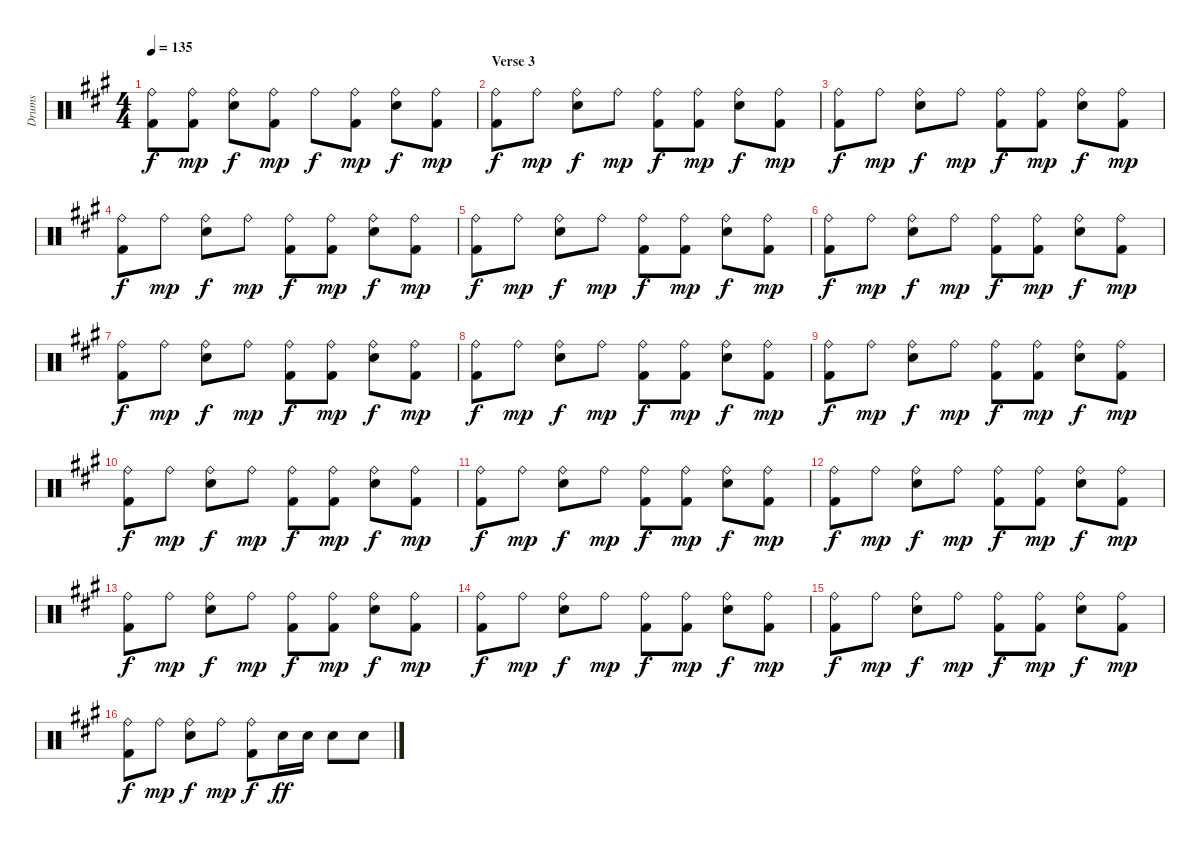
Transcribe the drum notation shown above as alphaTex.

\track ("Drums" "Drums") {instrument percussion}
\staff {score}
\articulation defaults
\ts (4 4)
\tempo 135
\clef neutral
\ks a
("Ride (bell)" "Kick (hit) 2").8{dy f} ("Ride (bell)" "Kick (hit) 2").8{dy mp} ("Ride (bell)" "Electric Snare (hit)").8{dy f} ("Ride (bell)" "Kick (hit) 2").8{dy mp} "Ride (bell)".8{dy f} ("Ride (bell)" "Kick (hit) 2").8{dy mp} ("Ride (bell)" "Electric Snare (hit)").8{dy f} ("Ride (bell)" "Kick (hit) 2").8{dy mp} |
\section ("" "Verse 3")
("Ride (bell)" "Kick (hit) 2").8{dy f} "Ride (bell)".8{dy mp} ("Ride (bell)" "Electric Snare (hit)").8{dy f} "Ride (bell)".8{dy mp} ("Ride (bell)" "Kick (hit) 2").8{dy f} ("Ride (bell)" "Kick (hit) 2").8{dy mp} ("Ride (bell)" "Electric Snare (hit)").8{dy f} ("Ride (bell)" "Kick (hit) 2").8{dy mp} |
("Ride (bell)" "Kick (hit) 2").8{dy f} "Ride (bell)".8{dy mp} ("Ride (bell)" "Electric Snare (hit)").8{dy f} "Ride (bell)".8{dy mp} ("Ride (bell)" "Kick (hit) 2").8{dy f} ("Ride (bell)" "Kick (hit) 2").8{dy mp} ("Ride (bell)" "Electric Snare (hit)").8{dy f} ("Ride (bell)" "Kick (hit) 2").8{dy mp} |
("Ride (bell)" "Kick (hit) 2").8{dy f} "Ride (bell)".8{dy mp} ("Ride (bell)" "Electric Snare (hit)").8{dy f} "Ride (bell)".8{dy mp} ("Ride (bell)" "Kick (hit) 2").8{dy f} ("Ride (bell)" "Kick (hit) 2").8{dy mp} ("Ride (bell)" "Electric Snare (hit)").8{dy f} ("Ride (bell)" "Kick (hit) 2").8{dy mp} |
("Ride (bell)" "Kick (hit) 2").8{dy f} "Ride (bell)".8{dy mp} ("Ride (bell)" "Electric Snare (hit)").8{dy f} "Ride (bell)".8{dy mp} ("Ride (bell)" "Kick (hit) 2").8{dy f} ("Ride (bell)" "Kick (hit) 2").8{dy mp} ("Ride (bell)" "Electric Snare (hit)").8{dy f} ("Ride (bell)" "Kick (hit) 2").8{dy mp} |
("Ride (bell)" "Kick (hit) 2").8{dy f} "Ride (bell)".8{dy mp} ("Ride (bell)" "Electric Snare (hit)").8{dy f} "Ride (bell)".8{dy mp} ("Ride (bell)" "Kick (hit) 2").8{dy f} ("Ride (bell)" "Kick (hit) 2").8{dy mp} ("Ride (bell)" "Electric Snare (hit)").8{dy f} ("Ride (bell)" "Kick (hit) 2").8{dy mp} |
("Ride (bell)" "Kick (hit) 2").8{dy f} "Ride (bell)".8{dy mp} ("Ride (bell)" "Electric Snare (hit)").8{dy f} "Ride (bell)".8{dy mp} ("Ride (bell)" "Kick (hit) 2").8{dy f} ("Ride (bell)" "Kick (hit) 2").8{dy mp} ("Ride (bell)" "Electric Snare (hit)").8{dy f} ("Ride (bell)" "Kick (hit) 2").8{dy mp} |
("Ride (bell)" "Kick (hit) 2").8{dy f} "Ride (bell)".8{dy mp} ("Ride (bell)" "Electric Snare (hit)").8{dy f} "Ride (bell)".8{dy mp} ("Ride (bell)" "Kick (hit) 2").8{dy f} ("Ride (bell)" "Kick (hit) 2").8{dy mp} ("Ride (bell)" "Electric Snare (hit)").8{dy f} ("Ride (bell)" "Kick (hit) 2").8{dy mp} |
("Ride (bell)" "Kick (hit) 2").8{dy f} "Ride (bell)".8{dy mp} ("Ride (bell)" "Electric Snare (hit)").8{dy f} "Ride (bell)".8{dy mp} ("Ride (bell)" "Kick (hit) 2").8{dy f} ("Ride (bell)" "Kick (hit) 2").8{dy mp} ("Ride (bell)" "Electric Snare (hit)").8{dy f} ("Ride (bell)" "Kick (hit) 2").8{dy mp} |
("Ride (bell)" "Kick (hit) 2").8{dy f} "Ride (bell)".8{dy mp} ("Ride (bell)" "Electric Snare (hit)").8{dy f} "Ride (bell)".8{dy mp} ("Ride (bell)" "Kick (hit) 2").8{dy f} ("Ride (bell)" "Kick (hit) 2").8{dy mp} ("Ride (bell)" "Electric Snare (hit)").8{dy f} ("Ride (bell)" "Kick (hit) 2").8{dy mp} |
("Ride (bell)" "Kick (hit) 2").8{dy f} "Ride (bell)".8{dy mp} ("Ride (bell)" "Electric Snare (hit)").8{dy f} "Ride (bell)".8{dy mp} ("Ride (bell)" "Kick (hit) 2").8{dy f} ("Ride (bell)" "Kick (hit) 2").8{dy mp} ("Ride (bell)" "Electric Snare (hit)").8{dy f} ("Ride (bell)" "Kick (hit) 2").8{dy mp} |
("Ride (bell)" "Kick (hit) 2").8{dy f} "Ride (bell)".8{dy mp} ("Ride (bell)" "Electric Snare (hit)").8{dy f} "Ride (bell)".8{dy mp} ("Ride (bell)" "Kick (hit) 2").8{dy f} ("Ride (bell)" "Kick (hit) 2").8{dy mp} ("Ride (bell)" "Electric Snare (hit)").8{dy f} ("Ride (bell)" "Kick (hit) 2").8{dy mp} |
("Ride (bell)" "Kick (hit) 2").8{dy f} "Ride (bell)".8{dy mp} ("Ride (bell)" "Electric Snare (hit)").8{dy f} "Ride (bell)".8{dy mp} ("Ride (bell)" "Kick (hit) 2").8{dy f} ("Ride (bell)" "Kick (hit) 2").8{dy mp} ("Ride (bell)" "Electric Snare (hit)").8{dy f} ("Ride (bell)" "Kick (hit) 2").8{dy mp} |
("Ride (bell)" "Kick (hit) 2").8{dy f} "Ride (bell)".8{dy mp} ("Ride (bell)" "Electric Snare (hit)").8{dy f} "Ride (bell)".8{dy mp} ("Ride (bell)" "Kick (hit) 2").8{dy f} ("Ride (bell)" "Kick (hit) 2").8{dy mp} ("Ride (bell)" "Electric Snare (hit)").8{dy f} ("Ride (bell)" "Kick (hit) 2").8{dy mp} |
("Ride (bell)" "Kick (hit) 2").8{dy f} "Ride (bell)".8{dy mp} ("Ride (bell)" "Electric Snare (hit)").8{dy f} "Ride (bell)".8{dy mp} ("Ride (bell)" "Kick (hit) 2").8{dy f} ("Ride (bell)" "Kick (hit) 2").8{dy mp} ("Ride (bell)" "Electric Snare (hit)").8{dy f} ("Ride (bell)" "Kick (hit) 2").8{dy mp} |
("Ride (bell)" "Kick (hit) 2").8{dy f} "Ride (bell)".8{dy mp} ("Ride (bell)" "Electric Snare (hit)").8{dy f} "Ride (bell)".8{dy mp} ("Ride (bell)" "Kick (hit) 2").8{dy f} "Electric Snare (hit)".16{dy ff} "Electric Snare (hit)".16 "Electric Snare (hit)".8 "Electric Snare (hit)".8
